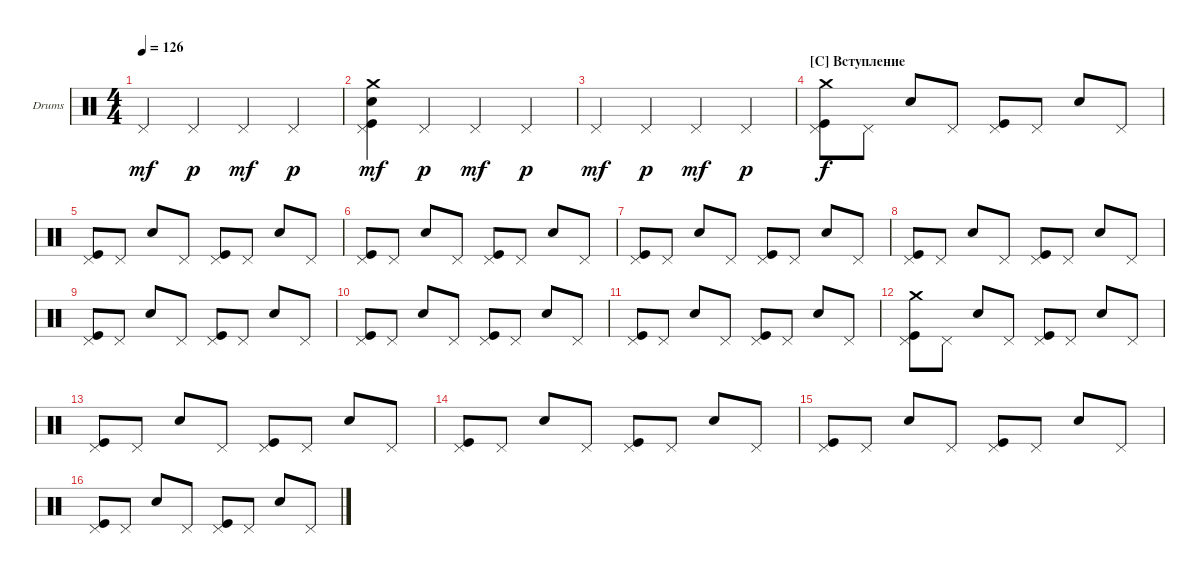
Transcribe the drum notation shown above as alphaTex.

\defaultSystemsLayout 4
\bracketExtendMode groupsimilarinstruments
\firstSystemTrackNameOrientation horizontal
\otherSystemsTrackNameOrientation horizontal
\track ("Е. Кулаков" "Drums") {instrument percussion}
\staff {score}
\articulation defaults
\ts (4 4)
\tempo 126
\clef neutral
\ks c "Pedal Hi-Hat (hit)".4{dy mf} "Pedal Hi-Hat (hit)".4{dy p} "Pedal Hi-Hat (hit)".4{dy mf} "Pedal Hi-Hat (hit)".4{dy p}
|
("Snare (hit) 2" "Kick (hit)" "Crash medium (hit)" "Pedal Hi-Hat (hit)").4{dy mf} "Pedal Hi-Hat (hit)".4{dy p} "Pedal Hi-Hat (hit)".4{dy mf} "Pedal Hi-Hat (hit)".4{dy p} |
"Pedal Hi-Hat (hit)".4{dy mf} "Pedal Hi-Hat (hit)".4{dy p} "Pedal Hi-Hat (hit)".4{dy mf} "Pedal Hi-Hat (hit)".4{dy p} |
\section ("C" "Вступление")
("Kick (hit)" "Pedal Hi-Hat (hit)" "Crash medium (hit)").8{dy f} "Pedal Hi-Hat (hit)".8 "Snare (hit) 2".8 "Pedal Hi-Hat (hit)".8 ("Kick (hit)" "Pedal Hi-Hat (hit)").8 "Pedal Hi-Hat (hit)".8 "Snare (hit) 2".8 "Pedal Hi-Hat (hit)".8 |
("Kick (hit)" "Pedal Hi-Hat (hit)").8 "Pedal Hi-Hat (hit)".8 "Snare (hit) 2".8 "Pedal Hi-Hat (hit)".8 ("Kick (hit)" "Pedal Hi-Hat (hit)").8 "Pedal Hi-Hat (hit)".8 "Snare (hit) 2".8 "Pedal Hi-Hat (hit)".8 |
("Kick (hit)" "Pedal Hi-Hat (hit)").8 "Pedal Hi-Hat (hit)".8 "Snare (hit) 2".8 "Pedal Hi-Hat (hit)".8 ("Kick (hit)" "Pedal Hi-Hat (hit)").8 "Pedal Hi-Hat (hit)".8 "Snare (hit) 2".8 "Pedal Hi-Hat (hit)".8 |
("Kick (hit)" "Pedal Hi-Hat (hit)").8 "Pedal Hi-Hat (hit)".8 "Snare (hit) 2".8 "Pedal Hi-Hat (hit)".8 ("Kick (hit)" "Pedal Hi-Hat (hit)").8 "Pedal Hi-Hat (hit)".8 "Snare (hit) 2".8 "Pedal Hi-Hat (hit)".8 |
("Kick (hit)" "Pedal Hi-Hat (hit)").8 "Pedal Hi-Hat (hit)".8 "Snare (hit) 2".8 "Pedal Hi-Hat (hit)".8 ("Kick (hit)" "Pedal Hi-Hat (hit)").8 "Pedal Hi-Hat (hit)".8 "Snare (hit) 2".8 "Pedal Hi-Hat (hit)".8 |
("Kick (hit)" "Pedal Hi-Hat (hit)").8 "Pedal Hi-Hat (hit)".8 "Snare (hit) 2".8 "Pedal Hi-Hat (hit)".8 ("Kick (hit)" "Pedal Hi-Hat (hit)").8 "Pedal Hi-Hat (hit)".8 "Snare (hit) 2".8 "Pedal Hi-Hat (hit)".8 |
("Kick (hit)" "Pedal Hi-Hat (hit)").8 "Pedal Hi-Hat (hit)".8 "Snare (hit) 2".8 "Pedal Hi-Hat (hit)".8 ("Kick (hit)" "Pedal Hi-Hat (hit)").8 "Pedal Hi-Hat (hit)".8 "Snare (hit) 2".8 "Pedal Hi-Hat (hit)".8 |
("Kick (hit)" "Pedal Hi-Hat (hit)").8 "Pedal Hi-Hat (hit)".8 "Snare (hit) 2".8 "Pedal Hi-Hat (hit)".8 ("Kick (hit)" "Pedal Hi-Hat (hit)").8 "Pedal Hi-Hat (hit)".8 "Snare (hit) 2".8 "Pedal Hi-Hat (hit)".8 |
("Kick (hit)" "Pedal Hi-Hat (hit)" "Crash medium (hit)").8 "Pedal Hi-Hat (hit)".8 "Snare (hit) 2".8 "Pedal Hi-Hat (hit)".8 ("Kick (hit)" "Pedal Hi-Hat (hit)").8 "Pedal Hi-Hat (hit)".8 "Snare (hit) 2".8 "Pedal Hi-Hat (hit)".8 |
("Kick (hit)" "Pedal Hi-Hat (hit)").8 "Pedal Hi-Hat (hit)".8 "Snare (hit) 2".8 "Pedal Hi-Hat (hit)".8 ("Kick (hit)" "Pedal Hi-Hat (hit)").8 "Pedal Hi-Hat (hit)".8 "Snare (hit) 2".8 "Pedal Hi-Hat (hit)".8 |
("Kick (hit)" "Pedal Hi-Hat (hit)").8 "Pedal Hi-Hat (hit)".8 "Snare (hit) 2".8 "Pedal Hi-Hat (hit)".8 ("Kick (hit)" "Pedal Hi-Hat (hit)").8 "Pedal Hi-Hat (hit)".8 "Snare (hit) 2".8 "Pedal Hi-Hat (hit)".8 |
("Kick (hit)" "Pedal Hi-Hat (hit)").8 "Pedal Hi-Hat (hit)".8 "Snare (hit) 2".8 "Pedal Hi-Hat (hit)".8 ("Kick (hit)" "Pedal Hi-Hat (hit)").8 "Pedal Hi-Hat (hit)".8 "Snare (hit) 2".8 "Pedal Hi-Hat (hit)".8 |
("Kick (hit)" "Pedal Hi-Hat (hit)").8 "Pedal Hi-Hat (hit)".8 "Snare (hit) 2".8 "Pedal Hi-Hat (hit)".8 ("Kick (hit)" "Pedal Hi-Hat (hit)").8 "Pedal Hi-Hat (hit)".8 "Snare (hit) 2".8 "Pedal Hi-Hat (hit)".8
